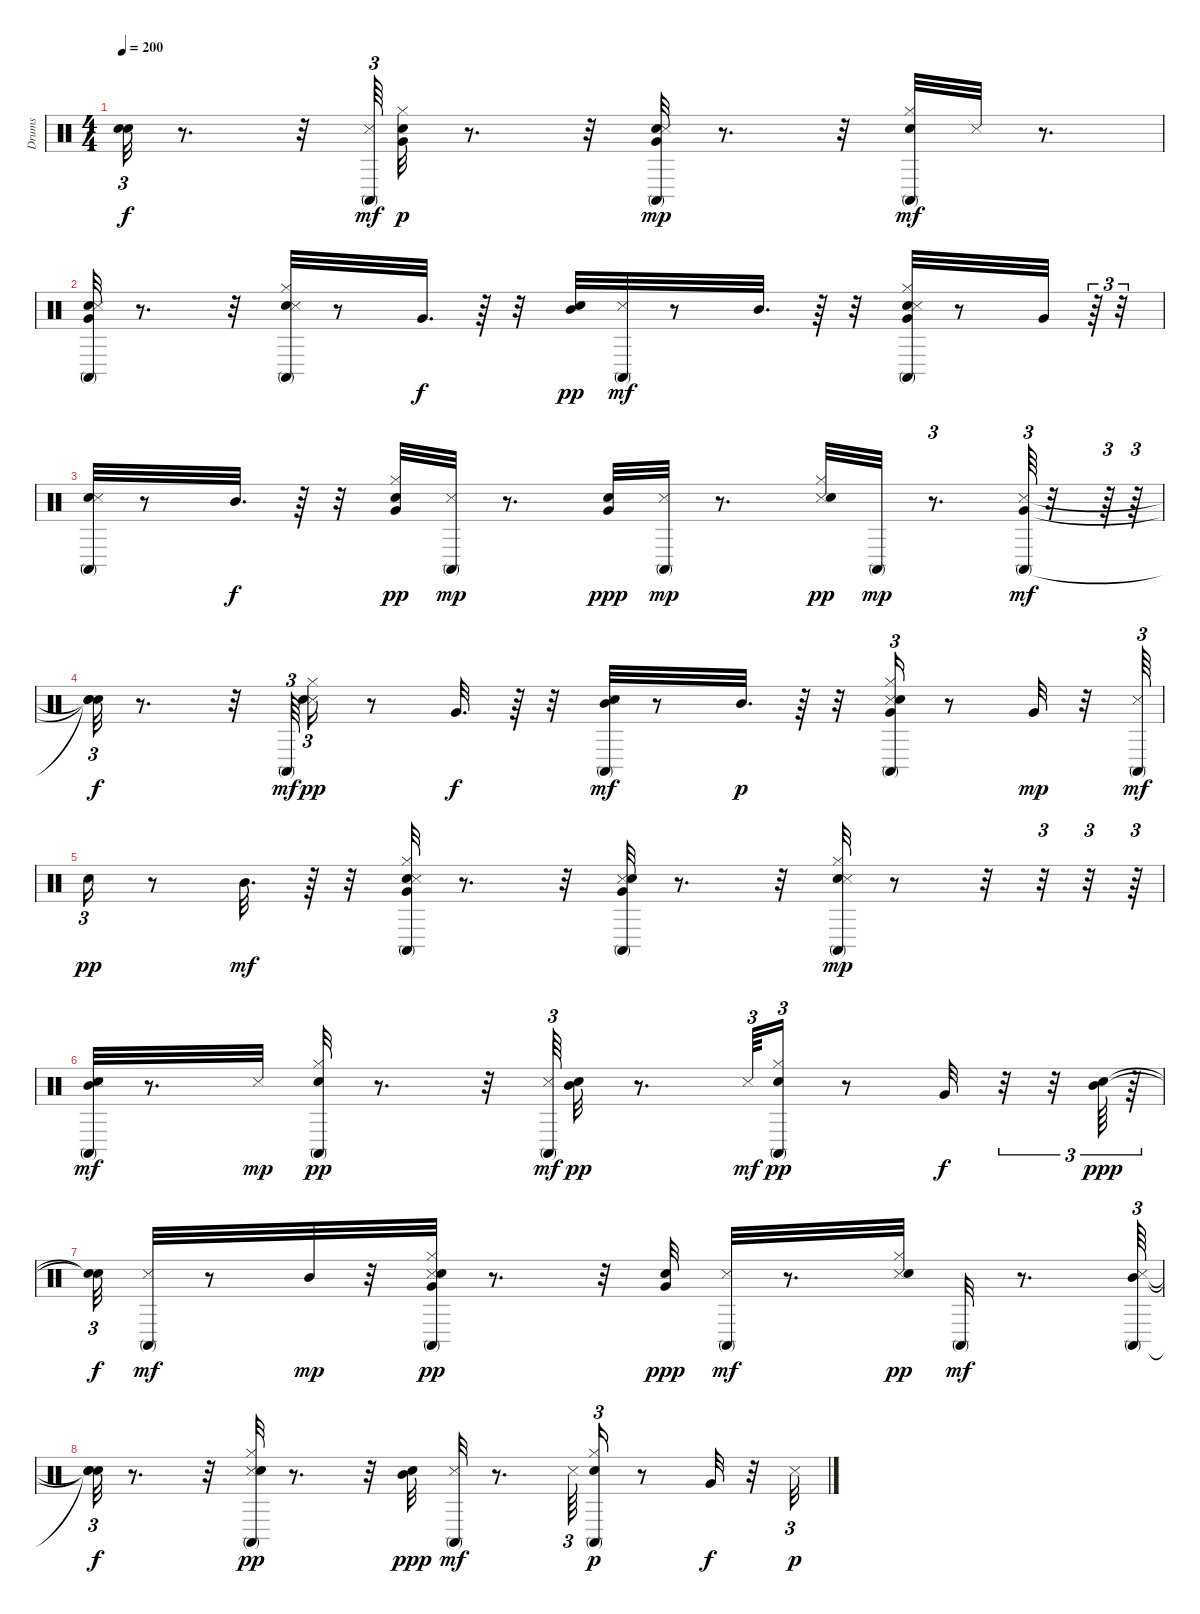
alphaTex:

\track ("Drums" "Drums") {instrument percussion}
\staff {score}
\articulation defaults
\ts (4 4)
\tempo 200
\clef neutral
\ks c
("Snare (hit)"{t} "Snare (hit)"{t}).32{tu (3 2) dy f} r.8{d} r.32 ("Conga high (mute)" "Snare (side stick) 3").64{tu (3 2) dy mf} ("Hi-Hat (closed)" "Very Low Tom (hit)" "Hand Clap (hit)").32{dy p} r.8{d} r.32 ("Very Low Tom (hit)" "Conga high (mute)" "Hand Clap (hit)" "Snare (side stick) 3").32{dy mp} r.8{d} r.32 ("Hi-Hat (closed)" "Hand Clap (hit)" "Conga high (mute)").32{dy mf} "Snare (side stick) 3".32 r.8{d} |
("Very Low Tom (hit)" "Hand Clap (hit)" "Snare (side stick) 3" "Conga high (mute)").32 r.8{d} r.32 ("Hi-Hat (closed)" "Hand Clap (hit)" "Snare (side stick) 3" "Conga high (mute)").32 r.8 "Very Low Tom (hit)".32{d dy f} r.64 r.32 ("Mid Tom (hit)" "Hand Clap (hit)").32{dy pp} ("Conga high (mute)" "Snare (side stick) 3").32{dy mf} r.8 "Mid Tom (hit)".32{d} r.64 r.32 ("Hi-Hat (closed)" "Very Low Tom (hit)" "Conga high (mute)" "Hand Clap (hit)" "Snare (side stick) 3").32 r.8 "Very Low Tom (hit)".32 r.64{tu (3 2)} r.32{tu (3 2)} |
("Hand Clap (hit)" "Conga high (mute)" "Snare (side stick) 3").32 r.8 "Mid Tom (hit)".32{d dy f} r.64 r.32 ("Hi-Hat (closed)" "Very Low Tom (hit)" "Hand Clap (hit)").32{dy pp} ("Snare (side stick) 3" "Conga high (mute)").32{dy mp} r.8{d} ("Very Low Tom (hit)" "Hand Clap (hit)").32{dy ppp} ("Conga high (mute)" "Snare (side stick) 3").32{dy mp} r.8{d} ("Hi-Hat (closed)" "Snare (side stick) 3" "Hand Clap (hit)").32{dy pp} "Conga high (mute)".32{dy mp} r.8{d tu (3 2)} ("Very Low Tom (hit)" "Snare (side stick) 3" "Conga high (mute)").64{tu (3 2) dy mf} r.32 r.64{tu (3 2)} r.64{tu (3 2)} |
("Snare (hit)"{t} "Snare (hit)"{t} "Snare (hit)"{t}).32{tu (3 2) dy f} r.8{d} r.32 "Conga high (mute)".64{tu (3 2) dy mf} ("Hi-Hat (closed)" "Snare (side stick) 3" "Hand Clap (hit)").16{tu (3 2) dy pp} r.8 "Very Low Tom (hit)".32{d dy f} r.64 r.32 ("Mid Tom (hit)" "Hand Clap (hit)" "Conga high (mute)" "Snare (side stick) 3").32{dy mf} r.8 "Mid Tom (hit)".32{d dy p} r.64 r.32 ("Hi-Hat (closed)" "Very Low Tom (hit)" "Snare (side stick) 3" "Conga high (mute)" "Hand Clap (hit)").16{tu (3 2)} r.8 "Very Low Tom (hit)".32{dy mp} r.32 ("Snare (side stick) 3" "Conga high (mute)").64{tu (3 2) dy mf} |
"Hand Clap (hit)".16{tu (3 2) dy pp} r.8 "Mid Tom (hit)".32{d dy mf} r.64 r.32 ("Hi-Hat (closed)" "Very Low Tom (hit)" "Conga high (mute)" "Hand Clap (hit)" "Snare (side stick) 3").32 r.8{d} r.32 ("Very Low Tom (hit)" "Snare (side stick) 3" "Hand Clap (hit)" "Conga high (mute)").32 r.8{d} r.32 ("Hi-Hat (closed)" "Hand Clap (hit)" "Snare (side stick) 3" "Conga high (mute)").32{dy mp} r.8 r.32 r.32{tu (3 2)} r.32{tu (3 2)} r.64{tu (3 2)} |
("Mid Tom (hit)" "Hand Clap (hit)" "Conga high (mute)" "Snare (side stick) 3").32{dy mf} r.8{d} "Snare (side stick) 3".32{dy mp} ("Hi-Hat (closed)" "Conga high (mute)" "Hand Clap (hit)").32{dy pp} r.8{d} r.32 ("Snare (side stick) 3" "Conga high (mute)").64{tu (3 2) dy mf} ("Mid Tom (hit)" "Hand Clap (hit)").32{dy pp} r.8{d} "Snare (side stick) 3".64{tu (3 2) dy mf} ("Hi-Hat (closed)" "Conga high (mute)" "Hand Clap (hit)").16{tu (3 2) dy pp} r.8 "Very Low Tom (hit)".32{dy f} r.32{tu (3 2)} r.32{tu (3 2)} ("Mid Tom (hit)" "Hand Clap (hit)").64{tu (3 2) dy ppp} r.64{tu (3 2)} |
("Snare (hit)"{t} "Snare (hit)"{t}).32{tu (3 2) dy f} ("Snare (side stick) 3" "Conga high (mute)").32{dy mf} r.8 "Mid Tom (hit)".32{dy mp} r.32 ("Snare (side stick) 3" "Hi-Hat (closed)" "Very Low Tom (hit)" "Conga high (mute)" "Hand Clap (hit)").32{dy pp} r.8{d} r.32 ("Very Low Tom (hit)" "Hand Clap (hit)").32{dy ppp} ("Conga high (mute)" "Snare (side stick) 3").32{dy mf} r.8{d} ("Hi-Hat (closed)" "Snare (side stick) 3" "Hand Clap (hit)").32{dy pp} "Conga high (mute)".32{dy mf} r.8{d} ("Mid Tom (hit)" "Conga high (mute)" "Snare (side stick) 3").64{tu (3 2)} |
("Snare (hit)"{t} "Snare (hit)"{t} "Snare (hit)"{t}).32{tu (3 2) dy f} r.8{d} r.32 ("Hi-Hat (closed)" "Snare (side stick) 3" "Conga high (mute)" "Hand Clap (hit)").32{dy pp} r.8{d} r.32 ("Mid Tom (hit)" "Hand Clap (hit)").32{dy ppp} ("Conga high (mute)" "Snare (side stick) 3").32{dy mf} r.8{d} "Snare (side stick) 3".64{tu (3 2)} ("Hi-Hat (closed)" "Conga high (mute)" "Hand Clap (hit)").16{tu (3 2) dy p} r.8 "Very Low Tom (hit)".32{dy f} r.32 "Snare (side stick) 3".32{tu (3 2) dy p}
